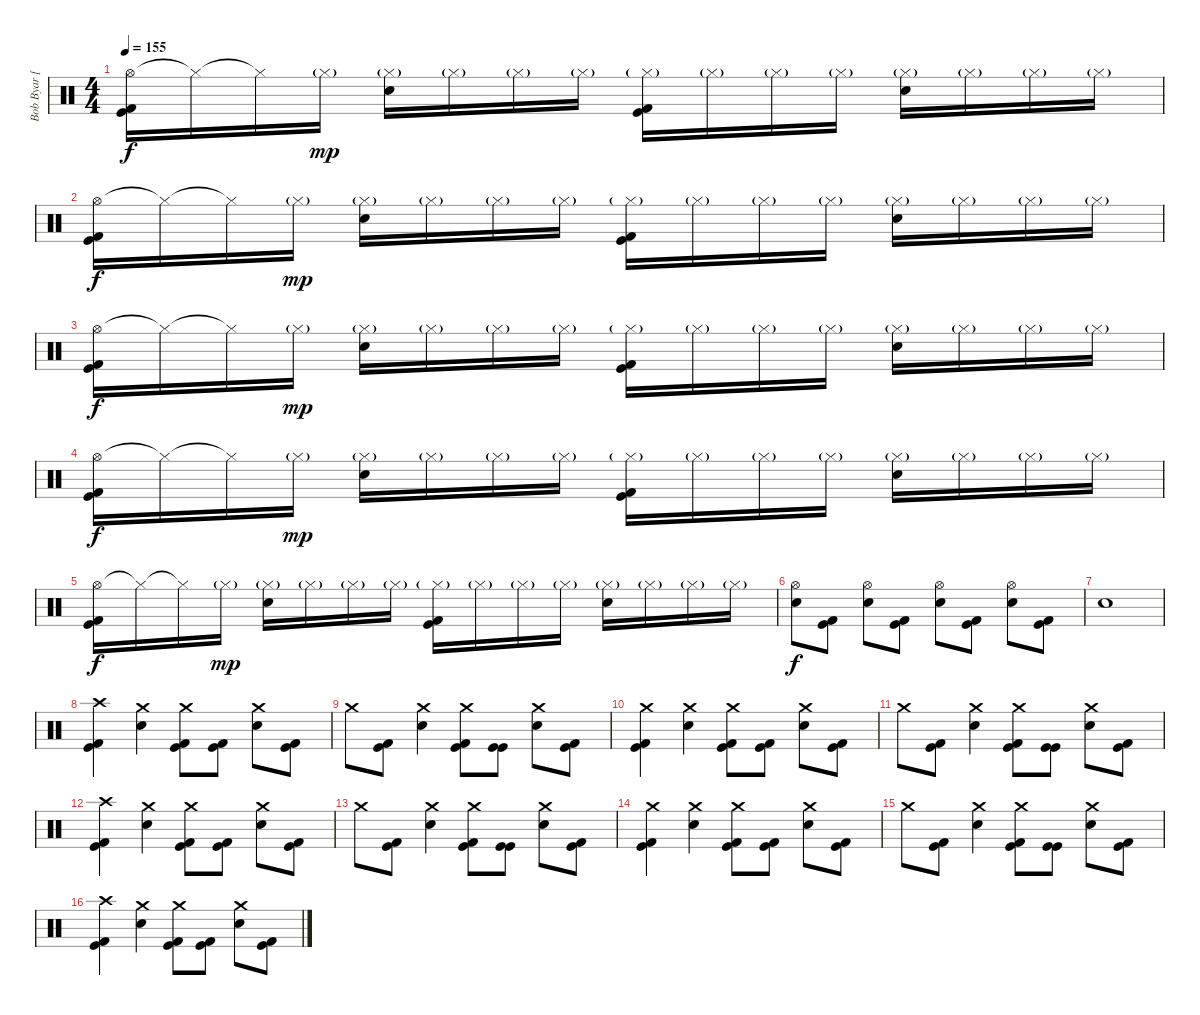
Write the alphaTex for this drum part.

\track ("Bob Byar [Drums]" "Bob Byar [") {instrument percussion}
\staff {score}
\articulation defaults
\ts (4 4)
\tempo 155
\clef neutral
\ks c
("Hi-Hat (open)" "Kick (hit)" "Kick (hit) 2").16{dy f} "Hi-Hat (closed)"{t}.16 "Hi-Hat (closed)"{t}.16 "Hi-Hat (closed)"{g}.16{dy mp} ("Hi-Hat (closed)"{g} "Electric Snare (hit)").16 "Hi-Hat (closed)"{g}.16 "Hi-Hat (closed)"{g}.16 "Hi-Hat (closed)"{g}.16 ("Hi-Hat (closed)"{g} "Kick (hit)" "Kick (hit) 2").16 "Hi-Hat (closed)"{g}.16 "Hi-Hat (closed)"{g}.16 "Hi-Hat (closed)"{g}.16 ("Hi-Hat (closed)"{g} "Electric Snare (hit)").16 "Hi-Hat (closed)"{g}.16 "Hi-Hat (closed)"{g}.16 "Hi-Hat (closed)"{g}.16 |
("Hi-Hat (open)" "Kick (hit)" "Kick (hit) 2").16{dy f} "Hi-Hat (closed)"{t}.16 "Hi-Hat (closed)"{t}.16 "Hi-Hat (closed)"{g}.16{dy mp} ("Hi-Hat (closed)"{g} "Electric Snare (hit)").16 "Hi-Hat (closed)"{g}.16 "Hi-Hat (closed)"{g}.16 "Hi-Hat (closed)"{g}.16 ("Hi-Hat (closed)"{g} "Kick (hit)" "Kick (hit) 2").16 "Hi-Hat (closed)"{g}.16 "Hi-Hat (closed)"{g}.16 "Hi-Hat (closed)"{g}.16 ("Hi-Hat (closed)"{g} "Electric Snare (hit)").16 "Hi-Hat (closed)"{g}.16 "Hi-Hat (closed)"{g}.16 "Hi-Hat (closed)"{g}.16 |
("Hi-Hat (open)" "Kick (hit)" "Kick (hit) 2").16{dy f} "Hi-Hat (closed)"{t}.16 "Hi-Hat (closed)"{t}.16 "Hi-Hat (closed)"{g}.16{dy mp} ("Hi-Hat (closed)"{g} "Electric Snare (hit)").16 "Hi-Hat (closed)"{g}.16 "Hi-Hat (closed)"{g}.16 "Hi-Hat (closed)"{g}.16 ("Hi-Hat (closed)"{g} "Kick (hit)" "Kick (hit) 2").16 "Hi-Hat (closed)"{g}.16 "Hi-Hat (closed)"{g}.16 "Hi-Hat (closed)"{g}.16 ("Hi-Hat (closed)"{g} "Electric Snare (hit)").16 "Hi-Hat (closed)"{g}.16 "Hi-Hat (closed)"{g}.16 "Hi-Hat (closed)"{g}.16 |
("Hi-Hat (open)" "Kick (hit)" "Kick (hit) 2").16{dy f} "Hi-Hat (closed)"{t}.16 "Hi-Hat (closed)"{t}.16 "Hi-Hat (closed)"{g}.16{dy mp} ("Hi-Hat (closed)"{g} "Electric Snare (hit)").16 "Hi-Hat (closed)"{g}.16 "Hi-Hat (closed)"{g}.16 "Hi-Hat (closed)"{g}.16 ("Hi-Hat (closed)"{g} "Kick (hit)" "Kick (hit) 2").16 "Hi-Hat (closed)"{g}.16 "Hi-Hat (closed)"{g}.16 "Hi-Hat (closed)"{g}.16 ("Hi-Hat (closed)"{g} "Electric Snare (hit)").16 "Hi-Hat (closed)"{g}.16 "Hi-Hat (closed)"{g}.16 "Hi-Hat (closed)"{g}.16 |
("Hi-Hat (open)" "Kick (hit)" "Kick (hit) 2").16{dy f} "Hi-Hat (closed)"{t}.16 "Hi-Hat (closed)"{t}.16 "Hi-Hat (closed)"{g}.16{dy mp} ("Hi-Hat (closed)"{g} "Electric Snare (hit)").16 "Hi-Hat (closed)"{g}.16 "Hi-Hat (closed)"{g}.16 "Hi-Hat (closed)"{g}.16 ("Hi-Hat (closed)"{g} "Kick (hit)" "Kick (hit) 2").16 "Hi-Hat (closed)"{g}.16 "Hi-Hat (closed)"{g}.16 "Hi-Hat (closed)"{g}.16 ("Hi-Hat (closed)"{g} "Electric Snare (hit)").16 "Hi-Hat (closed)"{g}.16 "Hi-Hat (closed)"{g}.16 "Hi-Hat (closed)"{g}.16 |
("Hi-Hat (open)" "Electric Snare (hit)").8{dy f} ("Kick (hit)" "Kick (hit) 2").8 ("Hi-Hat (open)" "Electric Snare (hit)").8 ("Kick (hit)" "Kick (hit) 2").8 ("Hi-Hat (open)" "Electric Snare (hit)").8 ("Kick (hit)" "Kick (hit) 2").8 ("Hi-Hat (open)" "Electric Snare (hit)").8 ("Kick (hit)" "Kick (hit) 2").8 |
"Electric Snare (hit)".1 |
("Crash high (hit)" "Kick (hit)" "Kick (hit) 2").4 ("Crash medium (hit)" "Electric Snare (hit)").4 ("Crash medium (hit)" "Kick (hit)" "Kick (hit) 2").8 ("Kick (hit)" "Kick (hit) 2").8 ("Crash medium (hit)" "Electric Snare (hit)").8 ("Kick (hit)" "Kick (hit) 2").8 |
"Crash medium (hit)".8 ("Kick (hit)" "Kick (hit) 2").8 ("Crash medium (hit)" "Electric Snare (hit)").4 ("Crash medium (hit)" "Kick (hit)" "Kick (hit) 2").8 ("Kick (hit)" "Kick (hit)").8 ("Crash medium (hit)" "Electric Snare (hit)").8 ("Kick (hit)" "Kick (hit) 2").8 |
("Crash medium (hit)" "Kick (hit)" "Kick (hit) 2").4 ("Crash medium (hit)" "Electric Snare (hit)").4 ("Crash medium (hit)" "Kick (hit)" "Kick (hit) 2").8 ("Kick (hit)" "Kick (hit) 2").8 ("Crash medium (hit)" "Electric Snare (hit)").8 ("Kick (hit)" "Kick (hit) 2").8 |
"Crash medium (hit)".8 ("Kick (hit)" "Kick (hit) 2").8 ("Crash medium (hit)" "Electric Snare (hit)").4 ("Crash medium (hit)" "Kick (hit)" "Kick (hit) 2").8 ("Kick (hit)" "Kick (hit)").8 ("Crash medium (hit)" "Electric Snare (hit)").8 ("Kick (hit)" "Kick (hit) 2").8 |
("Crash high (hit)" "Kick (hit)" "Kick (hit) 2").4 ("Crash medium (hit)" "Electric Snare (hit)").4 ("Crash medium (hit)" "Kick (hit)" "Kick (hit) 2").8 ("Kick (hit)" "Kick (hit) 2").8 ("Crash medium (hit)" "Electric Snare (hit)").8 ("Kick (hit)" "Kick (hit) 2").8 |
"Crash medium (hit)".8 ("Kick (hit)" "Kick (hit) 2").8 ("Crash medium (hit)" "Electric Snare (hit)").4 ("Crash medium (hit)" "Kick (hit)" "Kick (hit) 2").8 ("Kick (hit)" "Kick (hit)").8 ("Crash medium (hit)" "Electric Snare (hit)").8 ("Kick (hit)" "Kick (hit) 2").8 |
("Crash medium (hit)" "Kick (hit)" "Kick (hit) 2").4 ("Crash medium (hit)" "Electric Snare (hit)").4 ("Crash medium (hit)" "Kick (hit)" "Kick (hit) 2").8 ("Kick (hit)" "Kick (hit) 2").8 ("Crash medium (hit)" "Electric Snare (hit)").8 ("Kick (hit)" "Kick (hit) 2").8 |
"Crash medium (hit)".8 ("Kick (hit)" "Kick (hit) 2").8 ("Crash medium (hit)" "Electric Snare (hit)").4 ("Crash medium (hit)" "Kick (hit)" "Kick (hit) 2").8 ("Kick (hit)" "Kick (hit)").8 ("Crash medium (hit)" "Electric Snare (hit)").8 ("Kick (hit)" "Kick (hit) 2").8 |
("Crash high (hit)" "Kick (hit)" "Kick (hit) 2").4 ("Crash medium (hit)" "Electric Snare (hit)").4 ("Crash medium (hit)" "Kick (hit)" "Kick (hit) 2").8 ("Kick (hit)" "Kick (hit) 2").8 ("Crash medium (hit)" "Electric Snare (hit)").8 ("Kick (hit)" "Kick (hit) 2").8
